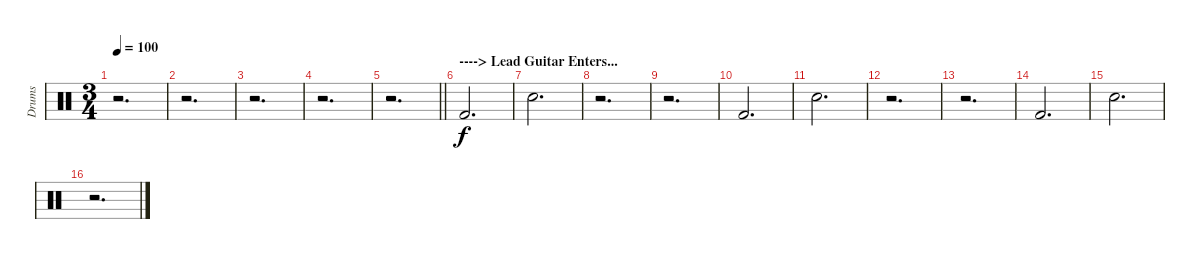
\track ("Drums" "Drums") {instrument percussion}
\staff {score}
\articulation defaults
\ts (3 4)
\tempo 100
\clef neutral
\ks c
r.2{d dy f} |
r.2{d} |
r.2{d} |
r.2{d} |
\barLineRight lightlight
r.2{d} |
\section ("" "----> Lead Guitar Enters...")
"Kick (hit) 2".2{d} |
"Electric Snare (hit)".2{d} |
r.2{d} |
r.2{d} |
"Kick (hit) 2".2{d} |
"Electric Snare (hit)".2{d} |
r.2{d} |
r.2{d} |
"Kick (hit) 2".2{d} |
"Electric Snare (hit)".2{d} |
r.2{d}
